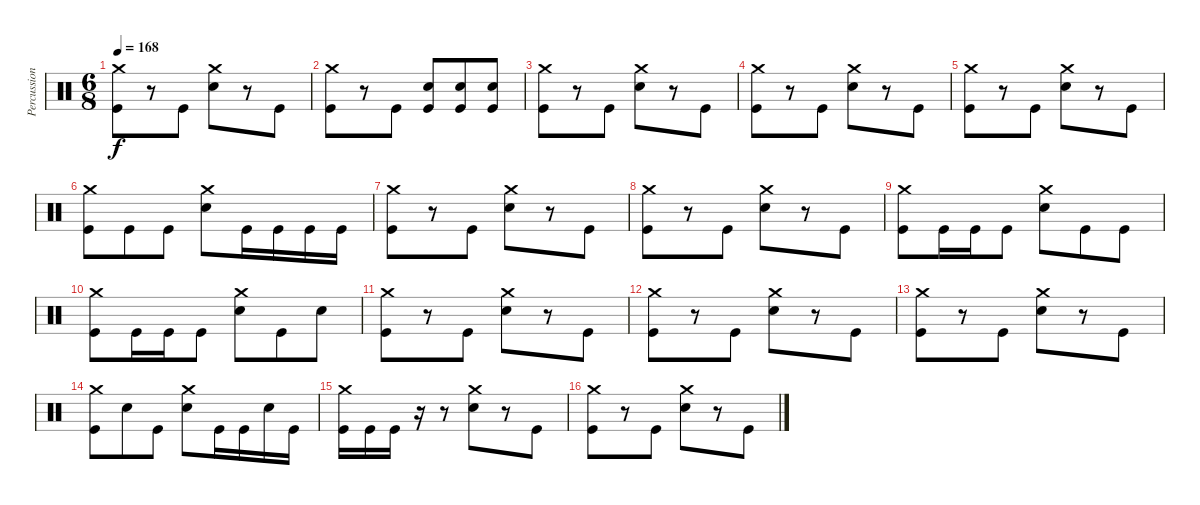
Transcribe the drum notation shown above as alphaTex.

\track ("Percussion" "Percussion") {instrument percussion}
\staff {score}
\articulation defaults
\ts (6 8)
\tempo 168
\clef neutral
\ks c
("Crash medium (hit)" "Kick (hit)").8{dy f} r.8 "Kick (hit)".8 ("Crash medium (hit)" "Snare (hit) 2").8 r.8 "Kick (hit)".8 |
("Crash medium (hit)" "Kick (hit)").8 r.8 "Kick (hit)".8 ("Snare (hit) 2" "Kick (hit)").8 ("Snare (hit) 2" "Kick (hit)").8 ("Snare (hit) 2" "Kick (hit)").8 |
("Crash medium (hit)" "Kick (hit)").8 r.8 "Kick (hit)".8 ("Crash medium (hit)" "Snare (hit) 2").8 r.8 "Kick (hit)".8 |
("Crash medium (hit)" "Kick (hit)").8 r.8 "Kick (hit)".8 ("Crash medium (hit)" "Snare (hit) 2").8 r.8 "Kick (hit)".8 |
("Crash medium (hit)" "Kick (hit)").8 r.8 "Kick (hit)".8 ("Crash medium (hit)" "Snare (hit) 2").8 r.8 "Kick (hit)".8 |
("Crash medium (hit)" "Kick (hit)").8 "Kick (hit)".8 "Kick (hit)".8 ("Crash medium (hit)" "Snare (hit) 2").8 "Kick (hit)".16 "Kick (hit)".16 "Kick (hit)".16 "Kick (hit)".16 |
("Crash medium (hit)" "Kick (hit)").8 r.8 "Kick (hit)".8 ("Crash medium (hit)" "Snare (hit) 2").8 r.8 "Kick (hit)".8 |
("Crash medium (hit)" "Kick (hit)").8 r.8 "Kick (hit)".8 ("Crash medium (hit)" "Snare (hit) 2").8 r.8 "Kick (hit)".8 |
("Crash medium (hit)" "Kick (hit)").8 "Kick (hit)".16 "Kick (hit)".16 "Kick (hit)".8 ("Crash medium (hit)" "Snare (hit) 2").8 "Kick (hit)".8 "Kick (hit)".8 |
("Crash medium (hit)" "Kick (hit)").8 "Kick (hit)".16 "Kick (hit)".16 "Kick (hit)".8 ("Crash medium (hit)" "Snare (hit) 2").8 "Kick (hit)".8 "Snare (hit) 2".8 |
("Crash medium (hit)" "Kick (hit)").8 r.8 "Kick (hit)".8 ("Crash medium (hit)" "Snare (hit) 2").8 r.8 "Kick (hit)".8 |
("Crash medium (hit)" "Kick (hit)").8 r.8 "Kick (hit)".8 ("Crash medium (hit)" "Snare (hit) 2").8 r.8 "Kick (hit)".8 |
("Crash medium (hit)" "Kick (hit)").8 r.8 "Kick (hit)".8 ("Crash medium (hit)" "Snare (hit) 2").8 r.8 "Kick (hit)".8 |
("Crash medium (hit)" "Kick (hit)").8 "Snare (hit) 2".8 "Kick (hit)".8 ("Crash medium (hit)" "Snare (hit) 2").8 "Kick (hit)".16 "Kick (hit)".16 "Snare (hit) 2".16 "Kick (hit)".16 |
("Crash medium (hit)" "Kick (hit)").16 "Kick (hit)".16 "Kick (hit)".16 r.16 r.8 ("Crash medium (hit)" "Snare (hit) 2").8 r.8 "Kick (hit)".8 |
("Crash medium (hit)" "Kick (hit)").8 r.8 "Kick (hit)".8 ("Crash medium (hit)" "Snare (hit) 2").8 r.8 "Kick (hit)".8
